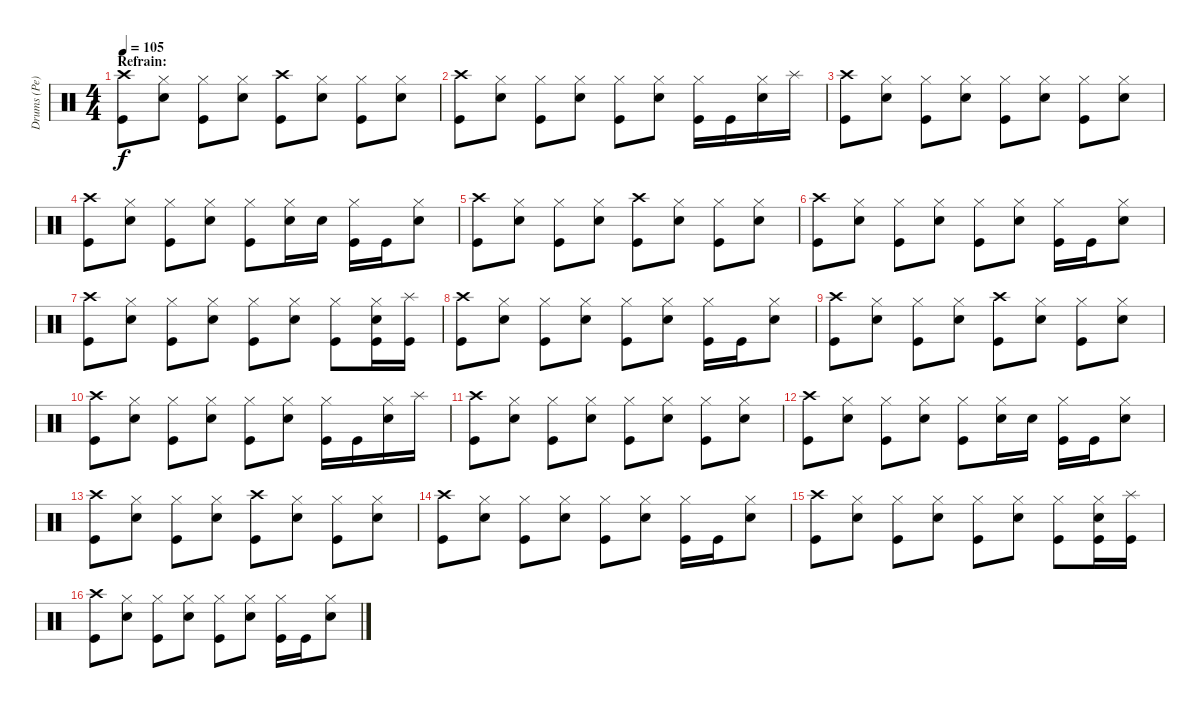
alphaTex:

\track ("Drums (Pe)" "Drums (Pe)") {instrument percussion}
\staff {score}
\articulation defaults
\ts (4 4)
\section ("" "Refrain:")
\tempo 105
\clef neutral
\ks c
("Crash high (hit)" "Kick (hit)").8{dy f} ("Snare (hit) 2" "Hi-Hat (closed)").8 ("Hi-Hat (closed)" "Kick (hit)").8 ("Snare (hit) 2" "Hi-Hat (closed)").8 ("Crash high (hit)" "Kick (hit)").8 ("Snare (hit) 2" "Hi-Hat (closed)").8 ("Hi-Hat (closed)" "Kick (hit)").8 ("Snare (hit) 2" "Hi-Hat (closed)").8 |
("Crash high (hit)" "Kick (hit)").8 ("Snare (hit) 2" "Hi-Hat (closed)").8 ("Hi-Hat (closed)" "Kick (hit)").8 ("Snare (hit) 2" "Hi-Hat (closed)").8 ("Hi-Hat (closed)" "Kick (hit)").8 ("Snare (hit) 2" "Hi-Hat (closed)").8 ("Hi-Hat (closed)" "Kick (hit)").16 "Kick (hit)".16 ("Hi-Hat (closed)" "Snare (hit) 2").16 "Splash (hit)".16 |
("Crash high (hit)" "Kick (hit)").8 ("Snare (hit) 2" "Hi-Hat (closed)").8 ("Hi-Hat (closed)" "Kick (hit)").8 ("Snare (hit) 2" "Hi-Hat (closed)").8 ("Hi-Hat (closed)" "Kick (hit)").8 ("Snare (hit) 2" "Hi-Hat (closed)").8 ("Hi-Hat (closed)" "Kick (hit)").8 ("Snare (hit) 2" "Hi-Hat (closed)").8 |
("Crash high (hit)" "Kick (hit)").8 ("Snare (hit) 2" "Hi-Hat (closed)").8 ("Hi-Hat (closed)" "Kick (hit)").8 ("Snare (hit) 2" "Hi-Hat (closed)").8 ("Hi-Hat (closed)" "Kick (hit)").8 ("Snare (hit) 2" "Hi-Hat (closed)").16 "Snare (hit) 2".16 ("Hi-Hat (closed)" "Kick (hit)").16 "Kick (hit)".16 ("Snare (hit) 2" "Hi-Hat (closed)").8 |
("Crash high (hit)" "Kick (hit)").8 ("Snare (hit) 2" "Hi-Hat (closed)").8 ("Hi-Hat (closed)" "Kick (hit)").8 ("Snare (hit) 2" "Hi-Hat (closed)").8 ("Crash high (hit)" "Kick (hit)").8 ("Snare (hit) 2" "Hi-Hat (closed)").8 ("Hi-Hat (closed)" "Kick (hit)").8 ("Snare (hit) 2" "Hi-Hat (closed)").8 |
("Crash high (hit)" "Kick (hit)").8 ("Snare (hit) 2" "Hi-Hat (closed)").8 ("Hi-Hat (closed)" "Kick (hit)").8 ("Snare (hit) 2" "Hi-Hat (closed)").8 ("Hi-Hat (closed)" "Kick (hit)").8 ("Snare (hit) 2" "Hi-Hat (closed)").8 ("Hi-Hat (closed)" "Kick (hit)").16 "Kick (hit)".16 ("Snare (hit) 2" "Hi-Hat (closed)").8 |
("Crash high (hit)" "Kick (hit)").8 ("Snare (hit) 2" "Hi-Hat (closed)").8 ("Hi-Hat (closed)" "Kick (hit)").8 ("Snare (hit) 2" "Hi-Hat (closed)").8 ("Hi-Hat (closed)" "Kick (hit)").8 ("Snare (hit) 2" "Hi-Hat (closed)").8 ("Hi-Hat (closed)" "Kick (hit)").8 ("Hi-Hat (closed)" "Snare (hit) 2" "Kick (hit)").16 ("Splash (hit)" "Kick (hit)").16 |
("Crash high (hit)" "Kick (hit)").8 ("Snare (hit) 2" "Hi-Hat (closed)").8 ("Hi-Hat (closed)" "Kick (hit)").8 ("Snare (hit) 2" "Hi-Hat (closed)").8 ("Hi-Hat (closed)" "Kick (hit)").8 ("Snare (hit) 2" "Hi-Hat (closed)").8 ("Hi-Hat (closed)" "Kick (hit)").16 "Kick (hit)".16 ("Snare (hit) 2" "Hi-Hat (closed)").8 |
("Crash high (hit)" "Kick (hit)").8 ("Snare (hit) 2" "Hi-Hat (closed)").8 ("Hi-Hat (closed)" "Kick (hit)").8 ("Snare (hit) 2" "Hi-Hat (closed)").8 ("Crash high (hit)" "Kick (hit)").8 ("Snare (hit) 2" "Hi-Hat (closed)").8 ("Hi-Hat (closed)" "Kick (hit)").8 ("Snare (hit) 2" "Hi-Hat (closed)").8 |
("Crash high (hit)" "Kick (hit)").8 ("Snare (hit) 2" "Hi-Hat (closed)").8 ("Hi-Hat (closed)" "Kick (hit)").8 ("Snare (hit) 2" "Hi-Hat (closed)").8 ("Hi-Hat (closed)" "Kick (hit)").8 ("Snare (hit) 2" "Hi-Hat (closed)").8 ("Hi-Hat (closed)" "Kick (hit)").16 "Kick (hit)".16 ("Hi-Hat (closed)" "Snare (hit) 2").16 "Splash (hit)".16 |
("Crash high (hit)" "Kick (hit)").8 ("Snare (hit) 2" "Hi-Hat (closed)").8 ("Hi-Hat (closed)" "Kick (hit)").8 ("Snare (hit) 2" "Hi-Hat (closed)").8 ("Hi-Hat (closed)" "Kick (hit)").8 ("Snare (hit) 2" "Hi-Hat (closed)").8 ("Hi-Hat (closed)" "Kick (hit)").8 ("Snare (hit) 2" "Hi-Hat (closed)").8 |
("Crash high (hit)" "Kick (hit)").8 ("Snare (hit) 2" "Hi-Hat (closed)").8 ("Hi-Hat (closed)" "Kick (hit)").8 ("Snare (hit) 2" "Hi-Hat (closed)").8 ("Hi-Hat (closed)" "Kick (hit)").8 ("Snare (hit) 2" "Hi-Hat (closed)").16 "Snare (hit) 2".16 ("Hi-Hat (closed)" "Kick (hit)").16 "Kick (hit)".16 ("Snare (hit) 2" "Hi-Hat (closed)").8 |
("Crash high (hit)" "Kick (hit)").8 ("Snare (hit) 2" "Hi-Hat (closed)").8 ("Hi-Hat (closed)" "Kick (hit)").8 ("Snare (hit) 2" "Hi-Hat (closed)").8 ("Crash high (hit)" "Kick (hit)").8 ("Snare (hit) 2" "Hi-Hat (closed)").8 ("Hi-Hat (closed)" "Kick (hit)").8 ("Snare (hit) 2" "Hi-Hat (closed)").8 |
("Crash high (hit)" "Kick (hit)").8 ("Snare (hit) 2" "Hi-Hat (closed)").8 ("Hi-Hat (closed)" "Kick (hit)").8 ("Snare (hit) 2" "Hi-Hat (closed)").8 ("Hi-Hat (closed)" "Kick (hit)").8 ("Snare (hit) 2" "Hi-Hat (closed)").8 ("Hi-Hat (closed)" "Kick (hit)").16 "Kick (hit)".16 ("Snare (hit) 2" "Hi-Hat (closed)").8 |
("Crash high (hit)" "Kick (hit)").8 ("Snare (hit) 2" "Hi-Hat (closed)").8 ("Hi-Hat (closed)" "Kick (hit)").8 ("Snare (hit) 2" "Hi-Hat (closed)").8 ("Hi-Hat (closed)" "Kick (hit)").8 ("Snare (hit) 2" "Hi-Hat (closed)").8 ("Hi-Hat (closed)" "Kick (hit)").8 ("Hi-Hat (closed)" "Snare (hit) 2" "Kick (hit)").16 ("Splash (hit)" "Kick (hit)").16 |
("Crash high (hit)" "Kick (hit)").8 ("Snare (hit) 2" "Hi-Hat (closed)").8 ("Hi-Hat (closed)" "Kick (hit)").8 ("Snare (hit) 2" "Hi-Hat (closed)").8 ("Hi-Hat (closed)" "Kick (hit)").8 ("Snare (hit) 2" "Hi-Hat (closed)").8 ("Hi-Hat (closed)" "Kick (hit)").16 "Kick (hit)".16 ("Snare (hit) 2" "Hi-Hat (closed)").8
